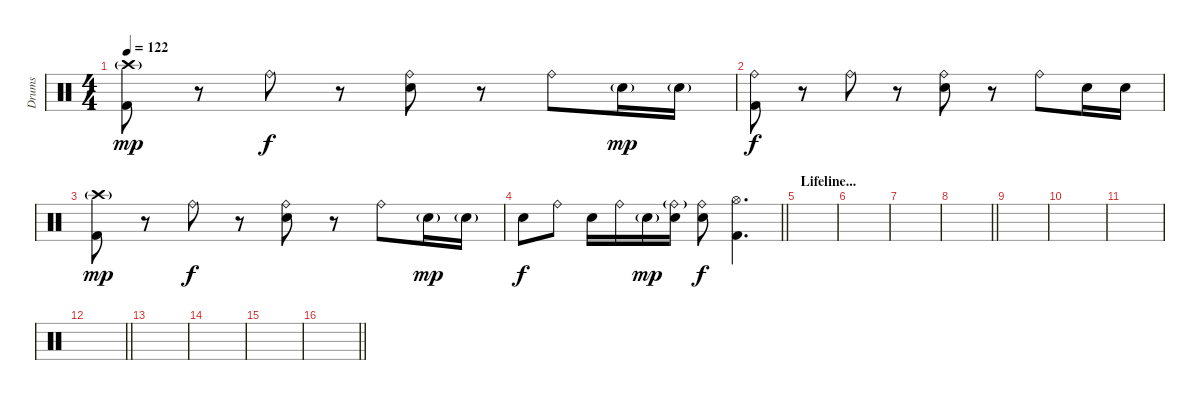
\track ("Drums" "Drums") {instrument percussion}
\staff {score}
\articulation defaults
\ts (4 4)
\section ("" "")
\tempo 122
\clef neutral
\ks c
("Crash high (hit)"{g} "Kick (hit) 2").8{dy mp} r.8 "Ride (bell)".8{dy f} r.8 ("Ride (bell)" "Snare (hit) 2").8 r.8 "Ride (bell)".8 "Electric Snare (hit)"{g}.16{dy mp} "Electric Snare (hit)"{g}.16 |
("Ride (bell)" "Kick (hit) 2").8{dy f} r.8 "Ride (bell)".8 r.8 ("Ride (bell)" "Snare (hit) 2").8 r.8 "Ride (bell)".8 "Electric Snare (hit)".16 "Electric Snare (hit)".16 |
("Crash high (hit)"{g} "Kick (hit) 2").8{dy mp} r.8 "Ride (bell)".8{dy f} r.8 ("Ride (bell)" "Snare (hit) 2").8 r.8 "Ride (bell)".8 "Electric Snare (hit)"{g}.16{dy mp} "Electric Snare (hit)"{g}.16 |
\barLineRight lightlight "Electric Snare (hit)".8{dy f} "Ride (bell)".8 "Electric Snare (hit)".16 "Ride (bell)".16 "Electric Snare (hit)"{g}.16{dy mp}
("Ride (bell)"{g} "Electric Snare (hit)").16 ("Ride (bell)" "Electric Snare (hit)").8{dy f} ("Hi-Hat (open)" "Kick (hit) 2").4{d} |
\section ("" "Lifeline...")
|
|
|
\barLineRight lightlight
|
\section ("" "")
|
|
|
\barLineRight lightlight
|
\section ("" "")
|
|
|
\barLineRight lightlight
